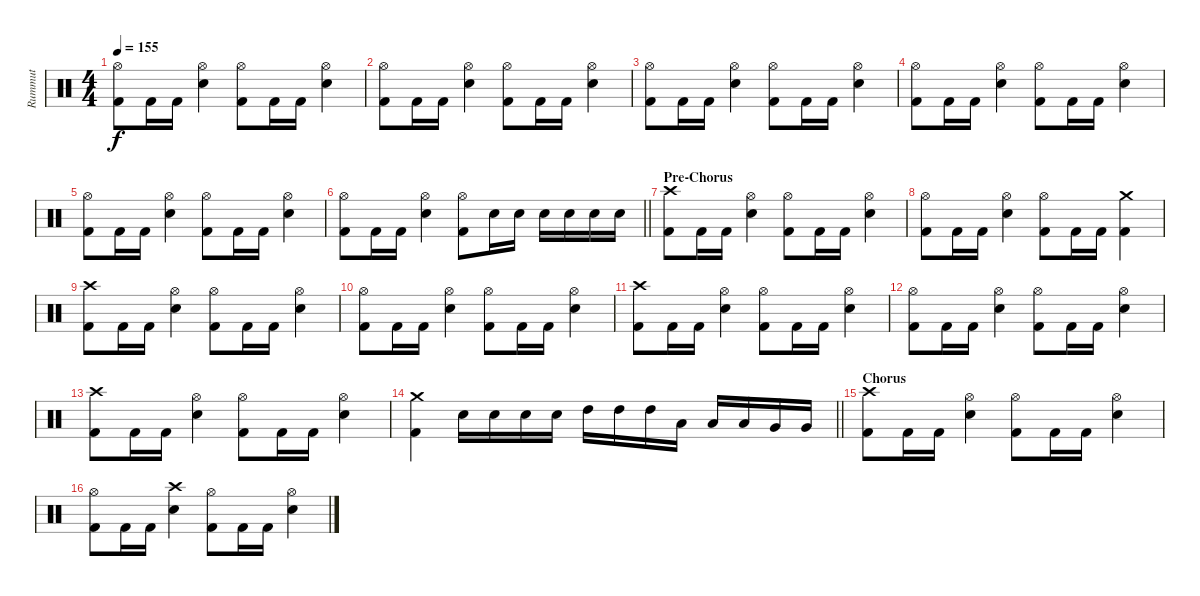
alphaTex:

\track ("Rummut" "Rummut") {instrument percussion}
\staff {score}
\articulation defaults
\ts (4 4)
\tempo 155
\clef neutral
\ks c
("Hi-Hat (open)" "Kick (hit) 2").8{dy f} "Kick (hit) 2".16 "Kick (hit) 2".16 ("Hi-Hat (open)" "Electric Snare (hit)").4 ("Hi-Hat (open)" "Kick (hit) 2").8 "Kick (hit) 2".16 "Kick (hit) 2".16 ("Hi-Hat (open)" "Electric Snare (hit)").4 |
("Hi-Hat (open)" "Kick (hit) 2").8 "Kick (hit) 2".16 "Kick (hit) 2".16 ("Hi-Hat (open)" "Electric Snare (hit)").4 ("Hi-Hat (open)" "Kick (hit) 2").8 "Kick (hit) 2".16 "Kick (hit) 2".16 ("Hi-Hat (open)" "Electric Snare (hit)").4 |
("Hi-Hat (open)" "Kick (hit) 2").8 "Kick (hit) 2".16 "Kick (hit) 2".16 ("Hi-Hat (open)" "Electric Snare (hit)").4 ("Hi-Hat (open)" "Kick (hit) 2").8 "Kick (hit) 2".16 "Kick (hit) 2".16 ("Hi-Hat (open)" "Electric Snare (hit)").4 |
("Hi-Hat (open)" "Kick (hit) 2").8 "Kick (hit) 2".16 "Kick (hit) 2".16 ("Hi-Hat (open)" "Electric Snare (hit)").4 ("Hi-Hat (open)" "Kick (hit) 2").8 "Kick (hit) 2".16 "Kick (hit) 2".16 ("Hi-Hat (open)" "Electric Snare (hit)").4 |
("Hi-Hat (open)" "Kick (hit) 2").8 "Kick (hit) 2".16 "Kick (hit) 2".16 ("Hi-Hat (open)" "Electric Snare (hit)").4 ("Hi-Hat (open)" "Kick (hit) 2").8 "Kick (hit) 2".16 "Kick (hit) 2".16 ("Hi-Hat (open)" "Electric Snare (hit)").4 |
\barLineRight lightlight
("Hi-Hat (open)" "Kick (hit) 2").8 "Kick (hit) 2".16 "Kick (hit) 2".16 ("Hi-Hat (open)" "Electric Snare (hit)").4 ("Hi-Hat (open)" "Kick (hit) 2").8 "Electric Snare (hit)".16 "Electric Snare (hit)".16 "Electric Snare (hit)".16 "Electric Snare (hit)".16 "Electric Snare (hit)".16 "Electric Snare (hit)".16 |
\section ("" "Pre-Chorus")
("Crash high (hit)" "Kick (hit) 2").8 "Kick (hit) 2".16 "Kick (hit) 2".16 ("Hi-Hat (open)" "Electric Snare (hit)").4 ("Hi-Hat (open)" "Kick (hit) 2").8 "Kick (hit) 2".16 "Kick (hit) 2".16 ("Hi-Hat (open)" "Electric Snare (hit)").4 |
("Hi-Hat (open)" "Kick (hit) 2").8 "Kick (hit) 2".16 "Kick (hit) 2".16 ("Hi-Hat (open)" "Electric Snare (hit)").4 ("Hi-Hat (open)" "Kick (hit) 2").8 "Kick (hit) 2".16 "Kick (hit) 2".16 ("Crash medium (hit)" "Kick (hit) 2").4 |
("Crash high (hit)" "Kick (hit) 2").8 "Kick (hit) 2".16 "Kick (hit) 2".16 ("Hi-Hat (open)" "Electric Snare (hit)").4 ("Hi-Hat (open)" "Kick (hit) 2").8 "Kick (hit) 2".16 "Kick (hit) 2".16 ("Hi-Hat (open)" "Electric Snare (hit)").4 |
("Hi-Hat (open)" "Kick (hit) 2").8 "Kick (hit) 2".16 "Kick (hit) 2".16 ("Hi-Hat (open)" "Electric Snare (hit)").4 ("Hi-Hat (open)" "Kick (hit) 2").8 "Kick (hit) 2".16 "Kick (hit) 2".16 ("Hi-Hat (open)" "Electric Snare (hit)").4 |
("Crash high (hit)" "Kick (hit) 2").8 "Kick (hit) 2".16 "Kick (hit) 2".16 ("Hi-Hat (open)" "Electric Snare (hit)").4 ("Hi-Hat (open)" "Kick (hit) 2").8 "Kick (hit) 2".16 "Kick (hit) 2".16 ("Hi-Hat (open)" "Electric Snare (hit)").4 |
("Hi-Hat (open)" "Kick (hit) 2").8 "Kick (hit) 2".16 "Kick (hit) 2".16 ("Hi-Hat (open)" "Electric Snare (hit)").4 ("Hi-Hat (open)" "Kick (hit) 2").8 "Kick (hit) 2".16 "Kick (hit) 2".16 ("Hi-Hat (open)" "Electric Snare (hit)").4 |
("Crash high (hit)" "Kick (hit) 2").8 "Kick (hit) 2".16 "Kick (hit) 2".16 ("Hi-Hat (open)" "Electric Snare (hit)").4 ("Hi-Hat (open)" "Kick (hit) 2").8 "Kick (hit) 2".16 "Kick (hit) 2".16 ("Hi-Hat (open)" "Electric Snare (hit)").4 |
\barLineRight lightlight
("Crash medium (hit)" "Kick (hit) 2").4 "Electric Snare (hit)".16 "Electric Snare (hit)".16 "Electric Snare (hit)".16 "Electric Snare (hit)".16 "High Tom (hit)".16 "High Tom (hit)".16 "High Tom (hit)".16 "Low Tom (hit)".16 "Low Tom (hit)".16 "Low Tom (hit)".16 "Very Low Tom (hit)".16 "Very Low Tom (hit)".16 |
\section ("" "Chorus")
("Crash high (hit)" "Kick (hit) 2").8 "Kick (hit) 2".16 "Kick (hit) 2".16 ("Hi-Hat (open)" "Electric Snare (hit)").4 ("Hi-Hat (open)" "Kick (hit) 2").8 "Kick (hit) 2".16 "Kick (hit) 2".16 ("Hi-Hat (open)" "Electric Snare (hit)").4 |
("Hi-Hat (open)" "Kick (hit) 2").8 "Kick (hit) 2".16 "Kick (hit) 2".16 ("Crash high (hit)" "Electric Snare (hit)").4 ("Hi-Hat (open)" "Kick (hit) 2").8 "Kick (hit) 2".16 "Kick (hit) 2".16 ("Hi-Hat (open)" "Electric Snare (hit)").4
